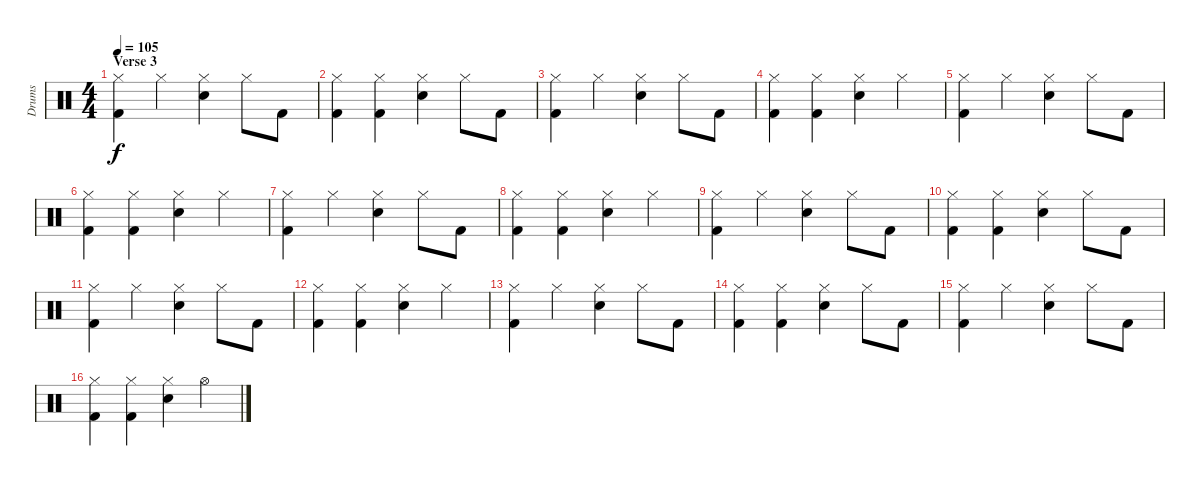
\track ("Drums" "Drums") {instrument percussion}
\staff {score}
\articulation defaults
\ts (4 4)
\section ("" "Verse 3")
\tempo 105
\clef neutral
\ks c
("Hi-Hat (closed)" "Kick (hit) 2").4{dy f} "Hi-Hat (closed)".4 ("Hi-Hat (closed)" "Electric Snare (hit)").4 "Hi-Hat (closed)".8 "Kick (hit) 2".8 |
("Hi-Hat (closed)" "Kick (hit) 2").4 ("Hi-Hat (closed)" "Kick (hit) 2").4 ("Hi-Hat (closed)" "Electric Snare (hit)").4 "Hi-Hat (closed)".8 "Kick (hit) 2".8 |
("Hi-Hat (closed)" "Kick (hit) 2").4 "Hi-Hat (closed)".4 ("Hi-Hat (closed)" "Electric Snare (hit)").4 "Hi-Hat (closed)".8 "Kick (hit) 2".8 |
("Hi-Hat (closed)" "Kick (hit) 2").4 ("Hi-Hat (closed)" "Kick (hit) 2").4 ("Hi-Hat (closed)" "Electric Snare (hit)").4 "Hi-Hat (closed)".4 |
("Hi-Hat (closed)" "Kick (hit) 2").4 "Hi-Hat (closed)".4 ("Hi-Hat (closed)" "Electric Snare (hit)").4 "Hi-Hat (closed)".8 "Kick (hit) 2".8 |
("Hi-Hat (closed)" "Kick (hit) 2").4 ("Hi-Hat (closed)" "Kick (hit) 2").4 ("Hi-Hat (closed)" "Electric Snare (hit)").4 "Hi-Hat (closed)".4 |
("Hi-Hat (closed)" "Kick (hit) 2").4 "Hi-Hat (closed)".4 ("Hi-Hat (closed)" "Electric Snare (hit)").4 "Hi-Hat (closed)".8 "Kick (hit) 2".8 |
("Hi-Hat (closed)" "Kick (hit) 2").4 ("Hi-Hat (closed)" "Kick (hit) 2").4 ("Hi-Hat (closed)" "Electric Snare (hit)").4 "Hi-Hat (closed)".4 |
("Hi-Hat (closed)" "Kick (hit) 2").4 "Hi-Hat (closed)".4 ("Hi-Hat (closed)" "Electric Snare (hit)").4 "Hi-Hat (closed)".8 "Kick (hit) 2".8 |
("Hi-Hat (closed)" "Kick (hit) 2").4 ("Hi-Hat (closed)" "Kick (hit) 2").4 ("Hi-Hat (closed)" "Electric Snare (hit)").4 "Hi-Hat (closed)".8 "Kick (hit) 2".8 |
("Hi-Hat (closed)" "Kick (hit) 2").4 "Hi-Hat (closed)".4 ("Hi-Hat (closed)" "Electric Snare (hit)").4 "Hi-Hat (closed)".8 "Kick (hit) 2".8 |
("Hi-Hat (closed)" "Kick (hit) 2").4 ("Hi-Hat (closed)" "Kick (hit) 2").4 ("Hi-Hat (closed)" "Electric Snare (hit)").4 "Hi-Hat (closed)".4 |
("Hi-Hat (closed)" "Kick (hit) 2").4 "Hi-Hat (closed)".4 ("Hi-Hat (closed)" "Electric Snare (hit)").4 "Hi-Hat (closed)".8 "Kick (hit) 2".8 |
("Hi-Hat (closed)" "Kick (hit) 2").4 ("Hi-Hat (closed)" "Kick (hit) 2").4 ("Hi-Hat (closed)" "Electric Snare (hit)").4 "Hi-Hat (closed)".8 "Kick (hit) 2".8 |
("Hi-Hat (closed)" "Kick (hit) 2").4 "Hi-Hat (closed)".4 ("Hi-Hat (closed)" "Electric Snare (hit)").4 "Hi-Hat (closed)".8 "Kick (hit) 2".8 |
("Hi-Hat (closed)" "Kick (hit) 2").4 ("Hi-Hat (closed)" "Kick (hit) 2").4 ("Hi-Hat (closed)" "Electric Snare (hit)").4 "Hi-Hat (open)".4
